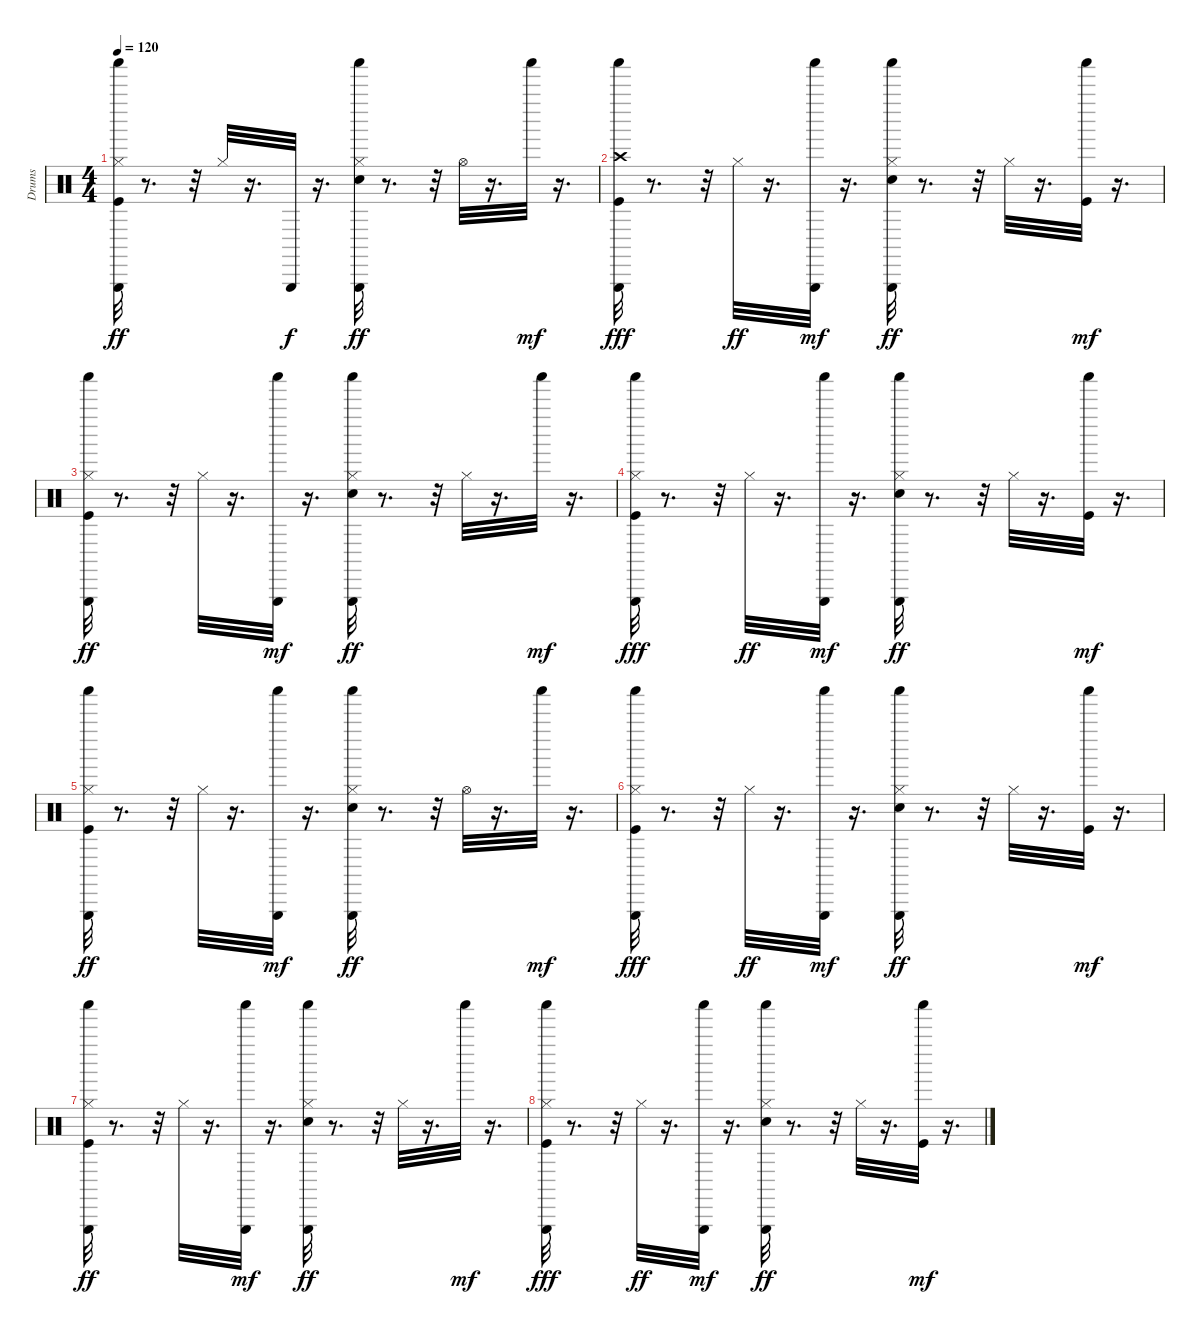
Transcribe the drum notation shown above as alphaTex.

\track ("Drums" "Drums") {instrument percussion}
\staff {score}
\articulation defaults
\ts (4 4)
\tempo 120
\clef neutral
\ks c
("Shaker (hit)" "Triangle (hit)" "Kick (hit)" "Hi-Hat (closed)").32{dy ff} r.8{d} r.32 "Hi-Hat (closed)".32 r.16{d} "Triangle (hit)".32{dy f} r.16{d} ("Shaker (hit)" "Triangle (hit)" "Electric Snare (hit)" "Hi-Hat (closed)").32{dy ff} r.8{d} r.32 "Hi-Hat (open)".32 r.16{d} "Shaker (hit)".32{dy mf} r.16{d} |
("Crash high (hit)" "Shaker (hit)" "Triangle (hit)" "Kick (hit)").32{dy fff} r.8{d} r.32 "Hi-Hat (closed)".32{dy ff} r.16{d} ("Shaker (hit)" "Triangle (hit)").32{dy mf} r.16{d} ("Shaker (hit)" "Triangle (hit)" "Electric Snare (hit)" "Hi-Hat (closed)").32{dy ff} r.8{d} r.32 "Hi-Hat (closed)".32 r.16{d} ("Kick (hit)" "Shaker (hit)").32{dy mf} r.16{d} |
("Shaker (hit)" "Triangle (hit)" "Kick (hit)" "Hi-Hat (closed)").32{dy ff} r.8{d} r.32 "Hi-Hat (closed)".32 r.16{d} ("Shaker (hit)" "Triangle (hit)").32{dy mf} r.16{d} ("Shaker (hit)" "Triangle (hit)" "Electric Snare (hit)" "Hi-Hat (closed)").32{dy ff} r.8{d} r.32 "Hi-Hat (closed)".32 r.16{d} "Shaker (hit)".32{dy mf} r.16{d} |
("Shaker (hit)" "Triangle (hit)" "Hi-Hat (closed)" "Kick (hit)").32{dy fff} r.8{d} r.32 "Hi-Hat (closed)".32{dy ff} r.16{d} ("Shaker (hit)" "Triangle (hit)").32{dy mf} r.16{d} ("Shaker (hit)" "Triangle (hit)" "Electric Snare (hit)" "Hi-Hat (closed)").32{dy ff} r.8{d} r.32 "Hi-Hat (closed)".32 r.16{d} ("Kick (hit)" "Shaker (hit)").32{dy mf} r.16{d} |
("Shaker (hit)" "Triangle (hit)" "Kick (hit)" "Hi-Hat (closed)").32{dy ff} r.8{d} r.32 "Hi-Hat (closed)".32 r.16{d} ("Shaker (hit)" "Triangle (hit)").32{dy mf} r.16{d} ("Shaker (hit)" "Triangle (hit)" "Electric Snare (hit)" "Hi-Hat (closed)").32{dy ff} r.8{d} r.32 "Hi-Hat (open)".32 r.16{d} "Shaker (hit)".32{dy mf} r.16{d} |
("Shaker (hit)" "Triangle (hit)" "Hi-Hat (closed)" "Kick (hit)").32{dy fff} r.8{d} r.32 "Hi-Hat (closed)".32{dy ff} r.16{d} ("Shaker (hit)" "Triangle (hit)").32{dy mf} r.16{d} ("Shaker (hit)" "Triangle (hit)" "Electric Snare (hit)" "Hi-Hat (closed)").32{dy ff} r.8{d} r.32 "Hi-Hat (closed)".32 r.16{d} ("Kick (hit)" "Shaker (hit)").32{dy mf} r.16{d} |
("Shaker (hit)" "Triangle (hit)" "Kick (hit)" "Hi-Hat (closed)").32{dy ff} r.8{d} r.32 "Hi-Hat (closed)".32 r.16{d} ("Shaker (hit)" "Triangle (hit)").32{dy mf} r.16{d} ("Shaker (hit)" "Triangle (hit)" "Electric Snare (hit)" "Hi-Hat (closed)").32{dy ff} r.8{d} r.32 "Hi-Hat (closed)".32 r.16{d} "Shaker (hit)".32{dy mf} r.16{d} |
("Shaker (hit)" "Triangle (hit)" "Hi-Hat (closed)" "Kick (hit)").32{dy fff} r.8{d} r.32 "Hi-Hat (closed)".32{dy ff} r.16{d} ("Shaker (hit)" "Triangle (hit)").32{dy mf} r.16{d} ("Shaker (hit)" "Triangle (hit)" "Electric Snare (hit)" "Hi-Hat (closed)").32{dy ff} r.8{d} r.32 "Hi-Hat (closed)".32 r.16{d} ("Kick (hit)" "Shaker (hit)").32{dy mf} r.16{d}
